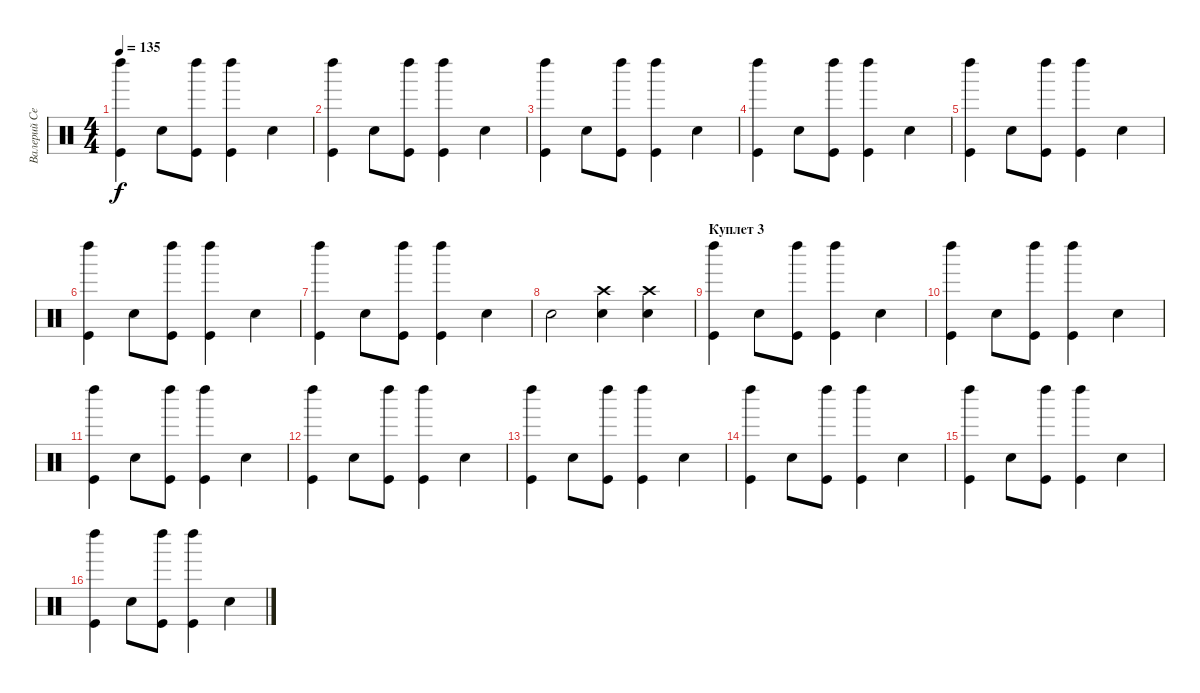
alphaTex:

\track ("Валерий Северин" "Валерий Се") {instrument percussion}
\staff {score}
\articulation defaults
\ts (4 4)
\tempo 135
\clef neutral
\ks c
("Kick (hit)" "Left Maraca (hit)").4{dy f} "Snare (hit) 2".8 ("Kick (hit)" "Left Maraca (hit)").8 ("Kick (hit)" "Left Maraca (hit)").4 "Snare (hit) 2".4 |
("Kick (hit)" "Left Maraca (hit)").4 "Snare (hit) 2".8 ("Kick (hit)" "Left Maraca (hit)").8 ("Kick (hit)" "Left Maraca (hit)").4 "Snare (hit) 2".4 |
("Kick (hit)" "Left Maraca (hit)").4 "Snare (hit) 2".8 ("Kick (hit)" "Left Maraca (hit)").8 ("Kick (hit)" "Left Maraca (hit)").4 "Snare (hit) 2".4 |
("Kick (hit)" "Left Maraca (hit)").4 "Snare (hit) 2".8 ("Kick (hit)" "Left Maraca (hit)").8 ("Kick (hit)" "Left Maraca (hit)").4 "Snare (hit) 2".4 |
("Kick (hit)" "Left Maraca (hit)").4 "Snare (hit) 2".8 ("Kick (hit)" "Left Maraca (hit)").8 ("Kick (hit)" "Left Maraca (hit)").4 "Snare (hit) 2".4 |
("Kick (hit)" "Left Maraca (hit)").4 "Snare (hit) 2".8 ("Kick (hit)" "Left Maraca (hit)").8 ("Kick (hit)" "Left Maraca (hit)").4 "Snare (hit) 2".4 |
("Kick (hit)" "Left Maraca (hit)").4 "Snare (hit) 2".8 ("Kick (hit)" "Left Maraca (hit)").8 ("Kick (hit)" "Left Maraca (hit)").4 "Snare (hit) 2".4 |
"Snare (hit) 2".2 ("Snare (hit) 2" "Crash high (hit)").4 ("Snare (hit) 2" "Crash high (hit)").4 |
\section ("" "Куплет 3")
("Kick (hit)" "Left Maraca (hit)").4 "Snare (hit) 2".8 ("Kick (hit)" "Left Maraca (hit)").8 ("Kick (hit)" "Left Maraca (hit)").4 "Snare (hit) 2".4 |
("Kick (hit)" "Left Maraca (hit)").4 "Snare (hit) 2".8 ("Kick (hit)" "Left Maraca (hit)").8 ("Kick (hit)" "Left Maraca (hit)").4 "Snare (hit) 2".4 |
("Kick (hit)" "Left Maraca (hit)").4 "Snare (hit) 2".8 ("Kick (hit)" "Left Maraca (hit)").8 ("Kick (hit)" "Left Maraca (hit)").4 "Snare (hit) 2".4 |
("Kick (hit)" "Left Maraca (hit)").4 "Snare (hit) 2".8 ("Kick (hit)" "Left Maraca (hit)").8 ("Kick (hit)" "Left Maraca (hit)").4 "Snare (hit) 2".4 |
("Kick (hit)" "Left Maraca (hit)").4 "Snare (hit) 2".8 ("Kick (hit)" "Left Maraca (hit)").8 ("Kick (hit)" "Left Maraca (hit)").4 "Snare (hit) 2".4 |
("Kick (hit)" "Left Maraca (hit)").4 "Snare (hit) 2".8 ("Kick (hit)" "Left Maraca (hit)").8 ("Kick (hit)" "Left Maraca (hit)").4 "Snare (hit) 2".4 |
("Kick (hit)" "Left Maraca (hit)").4 "Snare (hit) 2".8 ("Kick (hit)" "Left Maraca (hit)").8 ("Kick (hit)" "Left Maraca (hit)").4 "Snare (hit) 2".4 |
("Kick (hit)" "Left Maraca (hit)").4 "Snare (hit) 2".8 ("Kick (hit)" "Left Maraca (hit)").8 ("Kick (hit)" "Left Maraca (hit)").4 "Snare (hit) 2".4
